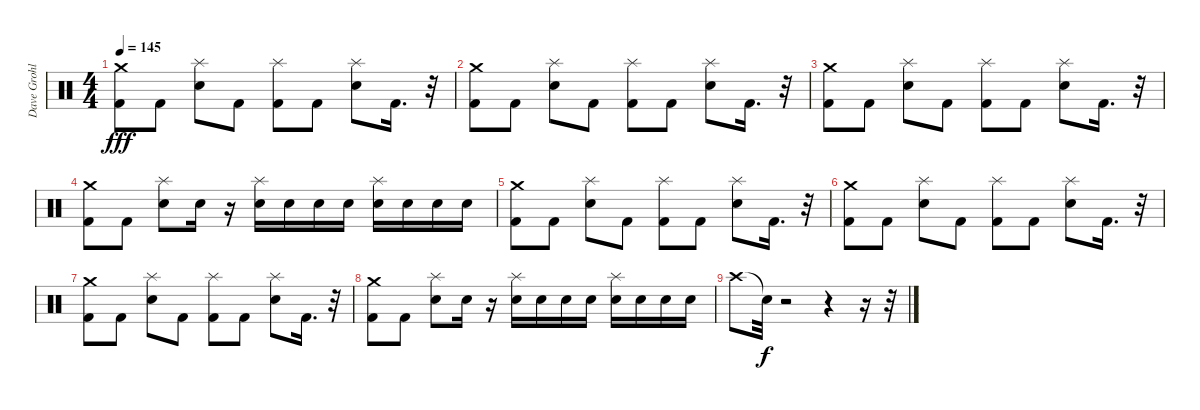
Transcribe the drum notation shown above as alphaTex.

\track ("Dave Grohl - Drums" "Dave Grohl") {instrument percussion}
\staff {score}
\articulation defaults
\ts (4 4)
\tempo 145
\clef neutral
\ks c
("Kick (hit) 2" "Crash medium (hit)").8{dy fff} "Kick (hit) 2".8 ("Splash (hit)" "Snare (hit) 2").8 "Kick (hit) 2".8 ("Splash (hit)" "Kick (hit) 2").8 "Kick (hit) 2".8 ("Splash (hit)" "Snare (hit) 2").8 "Kick (hit) 2".16{d} r.32 |
("Kick (hit) 2" "Crash medium (hit)").8 "Kick (hit) 2".8 ("Splash (hit)" "Snare (hit) 2").8 "Kick (hit) 2".8 ("Splash (hit)" "Kick (hit) 2").8 "Kick (hit) 2".8 ("Splash (hit)" "Snare (hit) 2").8 "Kick (hit) 2".16{d} r.32 |
("Kick (hit) 2" "Crash medium (hit)").8 "Kick (hit) 2".8 ("Splash (hit)" "Snare (hit) 2").8 "Kick (hit) 2".8 ("Splash (hit)" "Kick (hit) 2").8 "Kick (hit) 2".8 ("Splash (hit)" "Snare (hit) 2").8 "Kick (hit) 2".16{d} r.32 |
("Kick (hit) 2" "Crash medium (hit)").8 "Kick (hit) 2".8 ("Splash (hit)" "Snare (hit) 2").8 "Snare (hit) 2".16 r.16 ("Splash (hit)" "Snare (hit) 2").16 "Snare (hit) 2".16 "Snare (hit) 2".16 "Snare (hit) 2".16 ("Splash (hit)" "Snare (hit) 2").16 "Snare (hit) 2".16 "Snare (hit) 2".16 "Snare (hit) 2".16 |
("Kick (hit) 2" "Crash medium (hit)").8 "Kick (hit) 2".8 ("Splash (hit)" "Snare (hit) 2").8 "Kick (hit) 2".8 ("Splash (hit)" "Kick (hit) 2").8 "Kick (hit) 2".8 ("Splash (hit)" "Snare (hit) 2").8 "Kick (hit) 2".16{d} r.32 |
("Kick (hit) 2" "Crash medium (hit)").8 "Kick (hit) 2".8 ("Splash (hit)" "Snare (hit) 2").8 "Kick (hit) 2".8 ("Splash (hit)" "Kick (hit) 2").8 "Kick (hit) 2".8 ("Splash (hit)" "Snare (hit) 2").8 "Kick (hit) 2".16{d} r.32 |
("Kick (hit) 2" "Crash medium (hit)").8 "Kick (hit) 2".8 ("Splash (hit)" "Snare (hit) 2").8 "Kick (hit) 2".8 ("Splash (hit)" "Kick (hit) 2").8 "Kick (hit) 2".8 ("Splash (hit)" "Snare (hit) 2").8 "Kick (hit) 2".16{d} r.32 |
("Kick (hit) 2" "Crash medium (hit)").8 "Kick (hit) 2".8 ("Splash (hit)" "Snare (hit) 2").8 "Snare (hit) 2".16 r.16 ("Splash (hit)" "Snare (hit) 2").16 "Snare (hit) 2".16 "Snare (hit) 2".16 "Snare (hit) 2".16 ("Splash (hit)" "Snare (hit) 2").16 "Snare (hit) 2".16 "Snare (hit) 2".16 "Snare (hit) 2".16 |
"Crash high (hit)".8 "Snare (hit)"{t}.32{dy f} r.2 r.4 r.16 r.32
